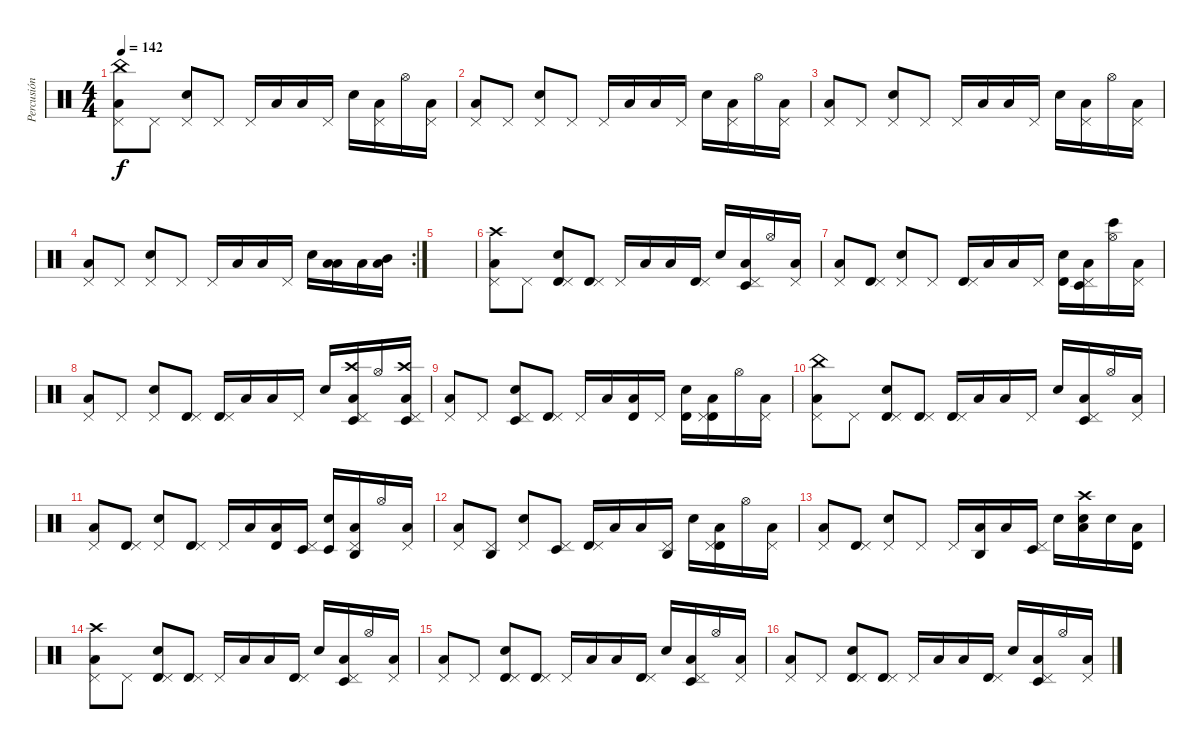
\track ("Percusión" "Percusión") {instrument percussion}
\staff {score}
\articulation defaults
\ts (4 4)
\tempo 142
\clef neutral
\ks c
("China (hit)" "Pedal Hi-Hat (hit)" "Low Floor Tom (hit)").8{dy f} "Pedal Hi-Hat (hit)".8 ("Pedal Hi-Hat (hit)" "Snare (hit) 2").8 "Pedal Hi-Hat (hit)".8 "Pedal Hi-Hat (hit)".16 "Low Floor Tom (hit)".16 "Low Floor Tom (hit)".16 "Pedal Hi-Hat (hit)".16 "Snare (hit) 2".16 ("Pedal Hi-Hat (hit)" "Low Floor Tom (hit)").16 "Hi-Hat (open)".16 ("Pedal Hi-Hat (hit)" "Low Floor Tom (hit)").16 |
("Pedal Hi-Hat (hit)" "Low Floor Tom (hit)").8 "Pedal Hi-Hat (hit)".8 ("Pedal Hi-Hat (hit)" "Snare (hit) 2").8 "Pedal Hi-Hat (hit)".8 "Pedal Hi-Hat (hit)".16 "Low Floor Tom (hit)".16 "Low Floor Tom (hit)".16 "Pedal Hi-Hat (hit)".16 "Snare (hit) 2".16 ("Pedal Hi-Hat (hit)" "Low Floor Tom (hit)").16 "Hi-Hat (open)".16 ("Pedal Hi-Hat (hit)" "Low Floor Tom (hit)").16 |
("Pedal Hi-Hat (hit)" "Low Floor Tom (hit)").8 "Pedal Hi-Hat (hit)".8 ("Pedal Hi-Hat (hit)" "Snare (hit) 2").8 "Pedal Hi-Hat (hit)".8 "Pedal Hi-Hat (hit)".16 "Low Floor Tom (hit)".16 "Low Floor Tom (hit)".16 "Pedal Hi-Hat (hit)".16 "Snare (hit) 2".16 ("Pedal Hi-Hat (hit)" "Low Floor Tom (hit)").16 "Hi-Hat (open)".16 ("Pedal Hi-Hat (hit)" "Low Floor Tom (hit)").16 |
\rc 2
("Pedal Hi-Hat (hit)" "Low Floor Tom (hit)").8 "Pedal Hi-Hat (hit)".8 ("Pedal Hi-Hat (hit)" "Snare (hit) 2").8 "Pedal Hi-Hat (hit)".8 "Pedal Hi-Hat (hit)".16 "Low Floor Tom (hit)".16 "Low Floor Tom (hit)".16 "Pedal Hi-Hat (hit)".16 "Snare (hit) 2".16 ("Low Tom (hit)" "Low Floor Tom (hit)").16 "Low Tom (hit)".16 ("Mid Tom (hit)" "Low Floor Tom (hit)").16 |
|
("Crash high (hit)" "Pedal Hi-Hat (hit)" "Low Floor Tom (hit)").8 "Pedal Hi-Hat (hit)".8 ("Timbale high (hit)" "Pedal Hi-Hat (hit)" "Snare (hit) 2").8 ("Timbale high (hit)" "Pedal Hi-Hat (hit)").8 "Pedal Hi-Hat (hit)".16 "Low Floor Tom (hit)".16 "Low Floor Tom (hit)".16 ("Timbale high (hit)" "Pedal Hi-Hat (hit)").16 "Snare (hit) 2".16 ("Timbale low (hit)" "Pedal Hi-Hat (hit)" "Low Floor Tom (hit)").16 "Hi-Hat (open)".16 ("Pedal Hi-Hat (hit)" "Low Floor Tom (hit)").16 |
("Pedal Hi-Hat (hit)" "Low Floor Tom (hit)").8 ("Timbale high (hit)" "Pedal Hi-Hat (hit)").8 ("Pedal Hi-Hat (hit)" "Snare (hit) 2").8 "Pedal Hi-Hat (hit)".8 ("Timbale high (hit)" "Pedal Hi-Hat (hit)").16 "Low Floor Tom (hit)".16 "Low Floor Tom (hit)".16 "Pedal Hi-Hat (hit)".16 ("Timbale high (hit)" "Snare (hit) 2").16 ("Timbale low (hit)" "Pedal Hi-Hat (hit)" "Low Floor Tom (hit)").16 ("Bongo High (hit)" "Hi-Hat (open)").16 ("Pedal Hi-Hat (hit)" "Low Floor Tom (hit)").16 |
("Pedal Hi-Hat (hit)" "Low Floor Tom (hit)").8 "Pedal Hi-Hat (hit)".8 ("Pedal Hi-Hat (hit)" "Snare (hit) 2").8 ("Timbale high (hit)" "Pedal Hi-Hat (hit)").8 ("Timbale high (hit)" "Pedal Hi-Hat (hit)").16 "Low Floor Tom (hit)".16 "Low Floor Tom (hit)".16 "Pedal Hi-Hat (hit)".16 "Snare (hit) 2".16 ("Crash high (hit)" "Timbale low (hit)" "Pedal Hi-Hat (hit)" "Low Floor Tom (hit)").16 "Hi-Hat (open)".16 ("Crash high (hit)" "Timbale low (hit)" "Pedal Hi-Hat (hit)" "Low Floor Tom (hit)").16 |
("Pedal Hi-Hat (hit)" "Low Floor Tom (hit)").8 "Pedal Hi-Hat (hit)".8 ("Timbale low (hit)" "Pedal Hi-Hat (hit)" "Snare (hit) 2").8 ("Timbale high (hit)" "Pedal Hi-Hat (hit)").8 "Pedal Hi-Hat (hit)".16 "Low Floor Tom (hit)".16 ("Timbale high (hit)" "Low Floor Tom (hit)").16 "Pedal Hi-Hat (hit)".16 ("Timbale high (hit)" "Snare (hit) 2").16 ("Timbale high (hit)" "Pedal Hi-Hat (hit)" "Low Floor Tom (hit)").16 "Hi-Hat (open)".16 ("Pedal Hi-Hat (hit)" "Low Floor Tom (hit)").16 |
("China (hit)" "Pedal Hi-Hat (hit)" "Low Floor Tom (hit)").8 "Pedal Hi-Hat (hit)".8 ("Timbale high (hit)" "Pedal Hi-Hat (hit)" "Snare (hit) 2").8 ("Timbale high (hit)" "Pedal Hi-Hat (hit)").8 ("Timbale high (hit)" "Pedal Hi-Hat (hit)").16 "Low Floor Tom (hit)".16 "Low Floor Tom (hit)".16 "Pedal Hi-Hat (hit)".16 "Snare (hit) 2".16 ("Timbale low (hit)" "Pedal Hi-Hat (hit)" "Low Floor Tom (hit)").16 "Hi-Hat (open)".16 ("Pedal Hi-Hat (hit)" "Low Floor Tom (hit)").16 |
("Pedal Hi-Hat (hit)" "Low Floor Tom (hit)").8 ("Timbale high (hit)" "Pedal Hi-Hat (hit)").8 ("Pedal Hi-Hat (hit)" "Snare (hit) 2").8 ("Timbale high (hit)" "Pedal Hi-Hat (hit)").8 "Pedal Hi-Hat (hit)".16 "Low Floor Tom (hit)".16 ("Timbale high (hit)" "Low Floor Tom (hit)").16 ("Timbale low (hit)" "Pedal Hi-Hat (hit)").16 ("Timbale low (hit)" "Snare (hit) 2").16 ("Agogo high (hit)" "Pedal Hi-Hat (hit)" "Low Floor Tom (hit)").16 "Hi-Hat (open)".16 ("Pedal Hi-Hat (hit)" "Low Floor Tom (hit)").16 |
("Pedal Hi-Hat (hit)" "Low Floor Tom (hit)").8 ("Agogo high (hit)" "Pedal Hi-Hat (hit)").8 ("Pedal Hi-Hat (hit)" "Snare (hit) 2").8 ("Timbale low (hit)" "Pedal Hi-Hat (hit)").8 ("Timbale high (hit)" "Pedal Hi-Hat (hit)").16 "Low Floor Tom (hit)".16 "Low Floor Tom (hit)".16 ("Agogo high (hit)" "Pedal Hi-Hat (hit)").16 "Snare (hit) 2".16 ("Timbale high (hit)" "Pedal Hi-Hat (hit)" "Low Floor Tom (hit)").16 "Hi-Hat (open)".16 ("Pedal Hi-Hat (hit)" "Low Floor Tom (hit)").16 |
("Pedal Hi-Hat (hit)" "Low Floor Tom (hit)").8 ("Timbale high (hit)" "Pedal Hi-Hat (hit)").8 ("Pedal Hi-Hat (hit)" "Snare (hit) 2").8 "Pedal Hi-Hat (hit)".8 "Pedal Hi-Hat (hit)".16 ("Agogo high (hit)" "Low Floor Tom (hit)").16 "Low Floor Tom (hit)".16 ("Timbale low (hit)" "Pedal Hi-Hat (hit)").16 "Snare (hit) 2".16 ("Crash high (hit)" "Snare (hit) 2" "Low Floor Tom (hit)").16 "Snare (hit) 2".16 ("Timbale high (hit)" "Low Floor Tom (hit)").16 |
("Crash high (hit)" "Pedal Hi-Hat (hit)" "Low Floor Tom (hit)").8 "Pedal Hi-Hat (hit)".8 ("Timbale high (hit)" "Pedal Hi-Hat (hit)" "Snare (hit) 2").8 ("Timbale high (hit)" "Pedal Hi-Hat (hit)").8 "Pedal Hi-Hat (hit)".16 "Low Floor Tom (hit)".16 "Low Floor Tom (hit)".16 ("Timbale high (hit)" "Pedal Hi-Hat (hit)").16 "Snare (hit) 2".16 ("Timbale low (hit)" "Pedal Hi-Hat (hit)" "Low Floor Tom (hit)").16 "Hi-Hat (open)".16 ("Pedal Hi-Hat (hit)" "Low Floor Tom (hit)").16 |
("Pedal Hi-Hat (hit)" "Low Floor Tom (hit)").8 "Pedal Hi-Hat (hit)".8 ("Timbale high (hit)" "Pedal Hi-Hat (hit)" "Snare (hit) 2").8 ("Timbale high (hit)" "Pedal Hi-Hat (hit)").8 "Pedal Hi-Hat (hit)".16 "Low Floor Tom (hit)".16 "Low Floor Tom (hit)".16 ("Timbale high (hit)" "Pedal Hi-Hat (hit)").16 "Snare (hit) 2".16 ("Timbale low (hit)" "Pedal Hi-Hat (hit)" "Low Floor Tom (hit)").16 "Hi-Hat (open)".16 ("Pedal Hi-Hat (hit)" "Low Floor Tom (hit)").16 |
("Pedal Hi-Hat (hit)" "Low Floor Tom (hit)").8 "Pedal Hi-Hat (hit)".8 ("Timbale high (hit)" "Pedal Hi-Hat (hit)" "Snare (hit) 2").8 ("Timbale high (hit)" "Pedal Hi-Hat (hit)").8 "Pedal Hi-Hat (hit)".16 "Low Floor Tom (hit)".16 "Low Floor Tom (hit)".16 ("Timbale high (hit)" "Pedal Hi-Hat (hit)").16 "Snare (hit) 2".16 ("Timbale low (hit)" "Pedal Hi-Hat (hit)" "Low Floor Tom (hit)").16 "Hi-Hat (open)".16 ("Pedal Hi-Hat (hit)" "Low Floor Tom (hit)").16
